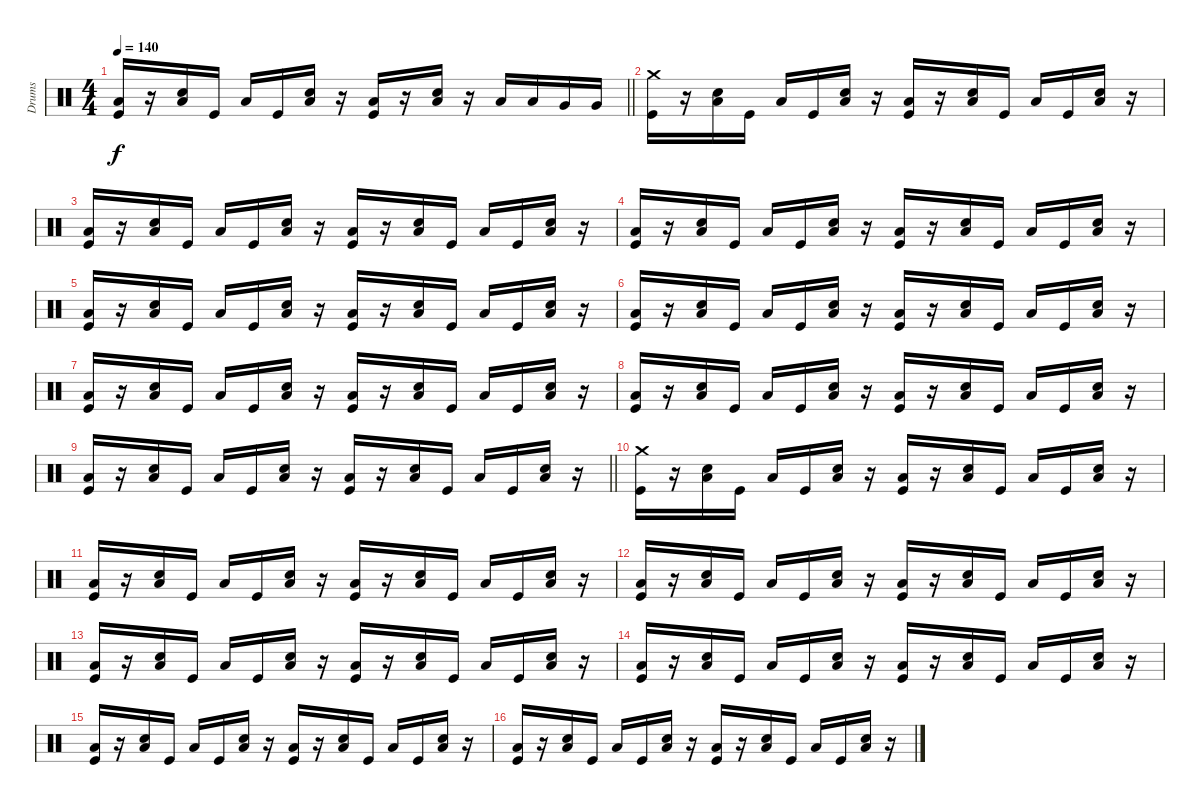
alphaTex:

\track ("Drums" "Drums") {instrument percussion}
\staff {score}
\articulation defaults
\ts (4 4)
\tempo 140
\clef neutral
\barLineRight lightlight
\ks c
("Low Floor Tom (hit)" "Kick (hit)").16{dy f} r.16 ("Low Floor Tom (hit)" "Snare (hit) 2").16 "Kick (hit)".16 "Low Floor Tom (hit)".16 "Kick (hit)".16 ("Low Floor Tom (hit)" "Snare (hit) 2").16 r.16 ("Low Floor Tom (hit)" "Kick (hit)").16 r.16 ("Low Floor Tom (hit)" "Snare (hit) 2").16 r.16 "Low Tom (hit)".16 "Low Tom (hit)".16 "Very Low Tom (hit)".16 "Very Low Tom (hit)".16 |
("Crash medium (hit)" "Kick (hit)").16 r.16 ("Low Floor Tom (hit)" "Snare (hit) 2").16 "Kick (hit)".16 "Low Floor Tom (hit)".16 "Kick (hit)".16 ("Low Floor Tom (hit)" "Snare (hit) 2").16 r.16 ("Low Floor Tom (hit)" "Kick (hit)").16 r.16 ("Low Floor Tom (hit)" "Snare (hit) 2").16 "Kick (hit)".16 "Low Floor Tom (hit)".16 "Kick (hit)".16 ("Low Floor Tom (hit)" "Snare (hit) 2").16 r.16 |
("Low Floor Tom (hit)" "Kick (hit)").16 r.16 ("Low Floor Tom (hit)" "Snare (hit) 2").16 "Kick (hit)".16 "Low Floor Tom (hit)".16 "Kick (hit)".16 ("Low Floor Tom (hit)" "Snare (hit) 2").16 r.16 ("Low Floor Tom (hit)" "Kick (hit)").16 r.16 ("Low Floor Tom (hit)" "Snare (hit) 2").16 "Kick (hit)".16 "Low Floor Tom (hit)".16 "Kick (hit)".16 ("Low Floor Tom (hit)" "Snare (hit) 2").16 r.16 |
("Low Floor Tom (hit)" "Kick (hit)").16 r.16 ("Low Floor Tom (hit)" "Snare (hit) 2").16 "Kick (hit)".16 "Low Floor Tom (hit)".16 "Kick (hit)".16 ("Low Floor Tom (hit)" "Snare (hit) 2").16 r.16 ("Low Floor Tom (hit)" "Kick (hit)").16 r.16 ("Low Floor Tom (hit)" "Snare (hit) 2").16 "Kick (hit)".16 "Low Floor Tom (hit)".16 "Kick (hit)".16 ("Low Floor Tom (hit)" "Snare (hit) 2").16 r.16 |
("Low Floor Tom (hit)" "Kick (hit)").16 r.16 ("Low Floor Tom (hit)" "Snare (hit) 2").16 "Kick (hit)".16 "Low Floor Tom (hit)".16 "Kick (hit)".16 ("Low Floor Tom (hit)" "Snare (hit) 2").16 r.16 ("Low Floor Tom (hit)" "Kick (hit)").16 r.16 ("Low Floor Tom (hit)" "Snare (hit) 2").16 "Kick (hit)".16 "Low Floor Tom (hit)".16 "Kick (hit)".16 ("Low Floor Tom (hit)" "Snare (hit) 2").16 r.16 |
("Low Floor Tom (hit)" "Kick (hit)").16 r.16 ("Low Floor Tom (hit)" "Snare (hit) 2").16 "Kick (hit)".16 "Low Floor Tom (hit)".16 "Kick (hit)".16 ("Low Floor Tom (hit)" "Snare (hit) 2").16 r.16 ("Low Floor Tom (hit)" "Kick (hit)").16 r.16 ("Low Floor Tom (hit)" "Snare (hit) 2").16 "Kick (hit)".16 "Low Floor Tom (hit)".16 "Kick (hit)".16 ("Low Floor Tom (hit)" "Snare (hit) 2").16 r.16 |
("Low Floor Tom (hit)" "Kick (hit)").16 r.16 ("Low Floor Tom (hit)" "Snare (hit) 2").16 "Kick (hit)".16 "Low Floor Tom (hit)".16 "Kick (hit)".16 ("Low Floor Tom (hit)" "Snare (hit) 2").16 r.16 ("Low Floor Tom (hit)" "Kick (hit)").16 r.16 ("Low Floor Tom (hit)" "Snare (hit) 2").16 "Kick (hit)".16 "Low Floor Tom (hit)".16 "Kick (hit)".16 ("Low Floor Tom (hit)" "Snare (hit) 2").16 r.16 |
("Low Floor Tom (hit)" "Kick (hit)").16 r.16 ("Low Floor Tom (hit)" "Snare (hit) 2").16 "Kick (hit)".16 "Low Floor Tom (hit)".16 "Kick (hit)".16 ("Low Floor Tom (hit)" "Snare (hit) 2").16 r.16 ("Low Floor Tom (hit)" "Kick (hit)").16 r.16 ("Low Floor Tom (hit)" "Snare (hit) 2").16 "Kick (hit)".16 "Low Floor Tom (hit)".16 "Kick (hit)".16 ("Low Floor Tom (hit)" "Snare (hit) 2").16 r.16 |
\barLineRight lightlight
("Low Floor Tom (hit)" "Kick (hit)").16 r.16 ("Low Floor Tom (hit)" "Snare (hit) 2").16 "Kick (hit)".16 "Low Floor Tom (hit)".16 "Kick (hit)".16 ("Low Floor Tom (hit)" "Snare (hit) 2").16 r.16 ("Low Floor Tom (hit)" "Kick (hit)").16 r.16 ("Low Floor Tom (hit)" "Snare (hit) 2").16 "Kick (hit)".16 "Low Floor Tom (hit)".16 "Kick (hit)".16 ("Low Floor Tom (hit)" "Snare (hit) 2").16 r.16 |
("Crash medium (hit)" "Kick (hit)").16 r.16 ("Low Floor Tom (hit)" "Snare (hit) 2").16 "Kick (hit)".16 "Low Floor Tom (hit)".16 "Kick (hit)".16 ("Low Floor Tom (hit)" "Snare (hit) 2").16 r.16 ("Low Floor Tom (hit)" "Kick (hit)").16 r.16 ("Low Floor Tom (hit)" "Snare (hit) 2").16 "Kick (hit)".16 "Low Floor Tom (hit)".16 "Kick (hit)".16 ("Low Floor Tom (hit)" "Snare (hit) 2").16 r.16 |
("Low Floor Tom (hit)" "Kick (hit)").16 r.16 ("Low Floor Tom (hit)" "Snare (hit) 2").16 "Kick (hit)".16 "Low Floor Tom (hit)".16 "Kick (hit)".16 ("Low Floor Tom (hit)" "Snare (hit) 2").16 r.16 ("Low Floor Tom (hit)" "Kick (hit)").16 r.16 ("Low Floor Tom (hit)" "Snare (hit) 2").16 "Kick (hit)".16 "Low Floor Tom (hit)".16 "Kick (hit)".16 ("Low Floor Tom (hit)" "Snare (hit) 2").16 r.16 |
("Low Floor Tom (hit)" "Kick (hit)").16 r.16 ("Low Floor Tom (hit)" "Snare (hit) 2").16 "Kick (hit)".16 "Low Floor Tom (hit)".16 "Kick (hit)".16 ("Low Floor Tom (hit)" "Snare (hit) 2").16 r.16 ("Low Floor Tom (hit)" "Kick (hit)").16 r.16 ("Low Floor Tom (hit)" "Snare (hit) 2").16 "Kick (hit)".16 "Low Floor Tom (hit)".16 "Kick (hit)".16 ("Low Floor Tom (hit)" "Snare (hit) 2").16 r.16 |
("Low Floor Tom (hit)" "Kick (hit)").16 r.16 ("Low Floor Tom (hit)" "Snare (hit) 2").16 "Kick (hit)".16 "Low Floor Tom (hit)".16 "Kick (hit)".16 ("Low Floor Tom (hit)" "Snare (hit) 2").16 r.16 ("Low Floor Tom (hit)" "Kick (hit)").16 r.16 ("Low Floor Tom (hit)" "Snare (hit) 2").16 "Kick (hit)".16 "Low Floor Tom (hit)".16 "Kick (hit)".16 ("Low Floor Tom (hit)" "Snare (hit) 2").16 r.16 |
("Low Floor Tom (hit)" "Kick (hit)").16 r.16 ("Low Floor Tom (hit)" "Snare (hit) 2").16 "Kick (hit)".16 "Low Floor Tom (hit)".16 "Kick (hit)".16 ("Low Floor Tom (hit)" "Snare (hit) 2").16 r.16 ("Low Floor Tom (hit)" "Kick (hit)").16 r.16 ("Low Floor Tom (hit)" "Snare (hit) 2").16 "Kick (hit)".16 "Low Floor Tom (hit)".16 "Kick (hit)".16 ("Low Floor Tom (hit)" "Snare (hit) 2").16 r.16 |
("Low Floor Tom (hit)" "Kick (hit)").16 r.16 ("Low Floor Tom (hit)" "Snare (hit) 2").16 "Kick (hit)".16 "Low Floor Tom (hit)".16 "Kick (hit)".16 ("Low Floor Tom (hit)" "Snare (hit) 2").16 r.16 ("Low Floor Tom (hit)" "Kick (hit)").16 r.16 ("Low Floor Tom (hit)" "Snare (hit) 2").16 "Kick (hit)".16 "Low Floor Tom (hit)".16 "Kick (hit)".16 ("Low Floor Tom (hit)" "Snare (hit) 2").16 r.16 |
("Low Floor Tom (hit)" "Kick (hit)").16 r.16 ("Low Floor Tom (hit)" "Snare (hit) 2").16 "Kick (hit)".16 "Low Floor Tom (hit)".16 "Kick (hit)".16 ("Low Floor Tom (hit)" "Snare (hit) 2").16 r.16 ("Low Floor Tom (hit)" "Kick (hit)").16 r.16 ("Low Floor Tom (hit)" "Snare (hit) 2").16 "Kick (hit)".16 "Low Floor Tom (hit)".16 "Kick (hit)".16 ("Low Floor Tom (hit)" "Snare (hit) 2").16 r.16
